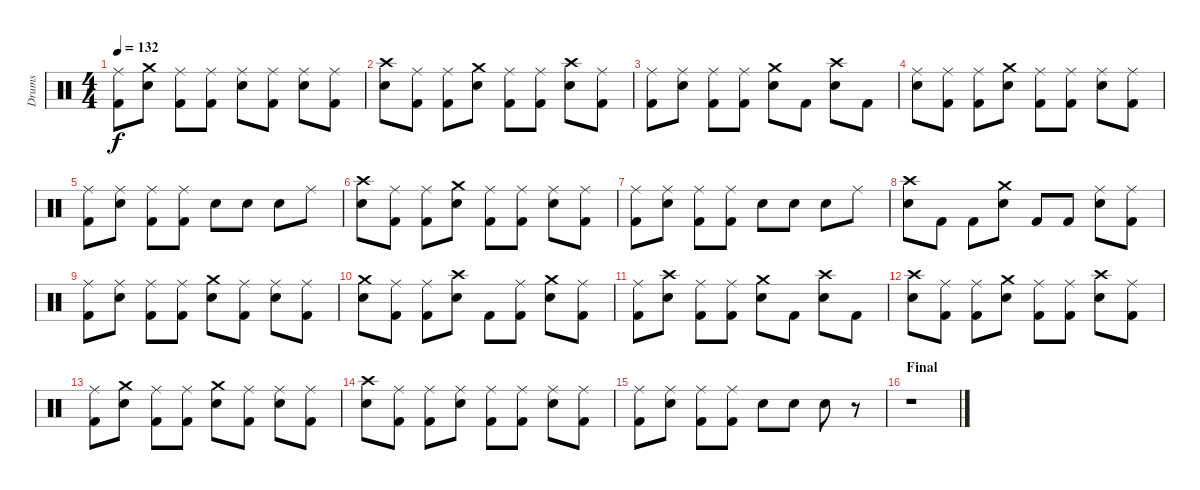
\track ("Drums" "Drums") {instrument percussion}
\staff {score}
\articulation defaults
\ts (4 4)
\tempo 132
\clef neutral
\ks c
("Ride (middle)" "Kick (hit) 2").8{dy f} ("Crash medium (hit)" "Snare (hit) 2").8 ("Ride (middle)" "Kick (hit) 2").8 ("Ride (middle)" "Kick (hit) 2").8 ("Ride (middle)" "Snare (hit) 2").8 ("Ride (middle)" "Kick (hit) 2").8 ("Ride (middle)" "Snare (hit) 2").8 ("Ride (middle)" "Kick (hit) 2").8 |
("Crash high (hit)" "Snare (hit) 2").8 ("Ride (middle)" "Kick (hit) 2").8 ("Ride (middle)" "Kick (hit) 2").8 ("Crash medium (hit)" "Snare (hit) 2").8 ("Ride (middle)" "Kick (hit) 2").8 ("Ride (middle)" "Kick (hit) 2").8 ("Crash high (hit)" "Snare (hit) 2").8 ("Ride (middle)" "Kick (hit) 2").8 |
("Ride (middle)" "Kick (hit) 2").8 ("Ride (middle)" "Snare (hit) 2").8 ("Ride (middle)" "Kick (hit) 2").8 ("Ride (middle)" "Kick (hit) 2").8 ("Crash medium (hit)" "Snare (hit) 2").8 "Kick (hit) 2".8 ("Crash high (hit)" "Snare (hit) 2").8 "Kick (hit) 2".8 |
("Ride (middle)" "Snare (hit) 2").8 ("Ride (middle)" "Kick (hit) 2").8 ("Ride (middle)" "Kick (hit) 2").8 ("Crash medium (hit)" "Snare (hit) 2").8 ("Ride (middle)" "Kick (hit) 2").8 ("Ride (middle)" "Kick (hit) 2").8 ("Ride (middle)" "Snare (hit) 2").8 ("Ride (middle)" "Kick (hit) 2").8 |
("Ride (middle)" "Kick (hit) 2").8 ("Ride (middle)" "Snare (hit) 2").8 ("Ride (middle)" "Kick (hit) 2").8 ("Ride (middle)" "Kick (hit) 2").8 "Snare (hit) 2".8 "Snare (hit) 2".8 "Snare (hit) 2".8 "Ride (middle)".8 |
("Crash high (hit)" "Snare (hit) 2").8 ("Ride (middle)" "Kick (hit) 2").8 ("Ride (middle)" "Kick (hit) 2").8 ("Crash medium (hit)" "Snare (hit) 2").8 ("Ride (middle)" "Kick (hit) 2").8 ("Ride (middle)" "Kick (hit) 2").8 ("Ride (middle)" "Snare (hit) 2").8 ("Ride (middle)" "Kick (hit) 2").8 |
("Ride (middle)" "Kick (hit) 2").8 ("Ride (middle)" "Snare (hit) 2").8 ("Ride (middle)" "Kick (hit) 2").8 ("Ride (middle)" "Kick (hit) 2").8 "Snare (hit) 2".8 "Snare (hit) 2".8 "Snare (hit) 2".8 "Ride (middle)".8 |
("Crash high (hit)" "Snare (hit) 2").8 "Kick (hit) 2".8 "Kick (hit) 2".8 ("Crash medium (hit)" "Snare (hit) 2").8 "Kick (hit) 2".8 "Kick (hit) 2".8 ("Ride (middle)" "Snare (hit) 2").8 ("Ride (middle)" "Kick (hit) 2").8 |
("Ride (middle)" "Kick (hit) 2").8 ("Ride (middle)" "Snare (hit) 2").8 ("Ride (middle)" "Kick (hit) 2").8 ("Ride (middle)" "Kick (hit) 2").8 ("Crash medium (hit)" "Snare (hit) 2").8 ("Ride (middle)" "Kick (hit) 2").8 ("Ride (middle)" "Snare (hit) 2").8 ("Ride (middle)" "Kick (hit) 2").8 |
("Crash medium (hit)" "Snare (hit) 2").8 ("Ride (middle)" "Kick (hit) 2").8 ("Ride (middle)" "Kick (hit) 2").8 ("Crash high (hit)" "Snare (hit) 2").8 "Kick (hit) 2".8 ("Ride (middle)" "Kick (hit) 2").8 ("Crash medium (hit)" "Snare (hit) 2").8 ("Ride (middle)" "Kick (hit) 2").8 |
("Ride (middle)" "Kick (hit) 2").8 ("Crash high (hit)" "Snare (hit) 2").8 ("Ride (middle)" "Kick (hit) 2").8 ("Ride (middle)" "Kick (hit) 2").8 ("Crash medium (hit)" "Snare (hit) 2").8 "Kick (hit) 2".8 ("Crash high (hit)" "Snare (hit) 2").8 "Kick (hit) 2".8 |
("Crash high (hit)" "Snare (hit) 2").8 ("Ride (middle)" "Kick (hit) 2").8 ("Ride (middle)" "Kick (hit) 2").8 ("Crash medium (hit)" "Snare (hit) 2").8 ("Ride (middle)" "Kick (hit) 2").8 ("Ride (middle)" "Kick (hit) 2").8 ("Crash high (hit)" "Snare (hit) 2").8 ("Ride (middle)" "Kick (hit) 2").8 |
("Ride (middle)" "Kick (hit) 2").8 ("Crash medium (hit)" "Snare (hit) 2").8 ("Ride (middle)" "Kick (hit) 2").8 ("Ride (middle)" "Kick (hit) 2").8 ("Crash medium (hit)" "Snare (hit) 2").8 ("Ride (middle)" "Kick (hit) 2").8 ("Ride (middle)" "Snare (hit) 2").8 ("Ride (middle)" "Kick (hit) 2").8 |
("Crash high (hit)" "Snare (hit) 2").8 ("Ride (middle)" "Kick (hit) 2").8 ("Ride (middle)" "Kick (hit) 2").8 ("Ride (middle)" "Snare (hit) 2").8 ("Ride (middle)" "Kick (hit) 2").8 ("Ride (middle)" "Kick (hit) 2").8 ("Ride (middle)" "Snare (hit) 2").8 ("Ride (middle)" "Kick (hit) 2").8 |
("Ride (middle)" "Kick (hit) 2").8 ("Ride (middle)" "Snare (hit) 2").8 ("Ride (middle)" "Kick (hit) 2").8 ("Ride (middle)" "Kick (hit) 2").8 "Snare (hit) 2".8 "Snare (hit) 2".8 "Snare (hit) 2".8 r.8 |
\section ("" "Final")
r.1
